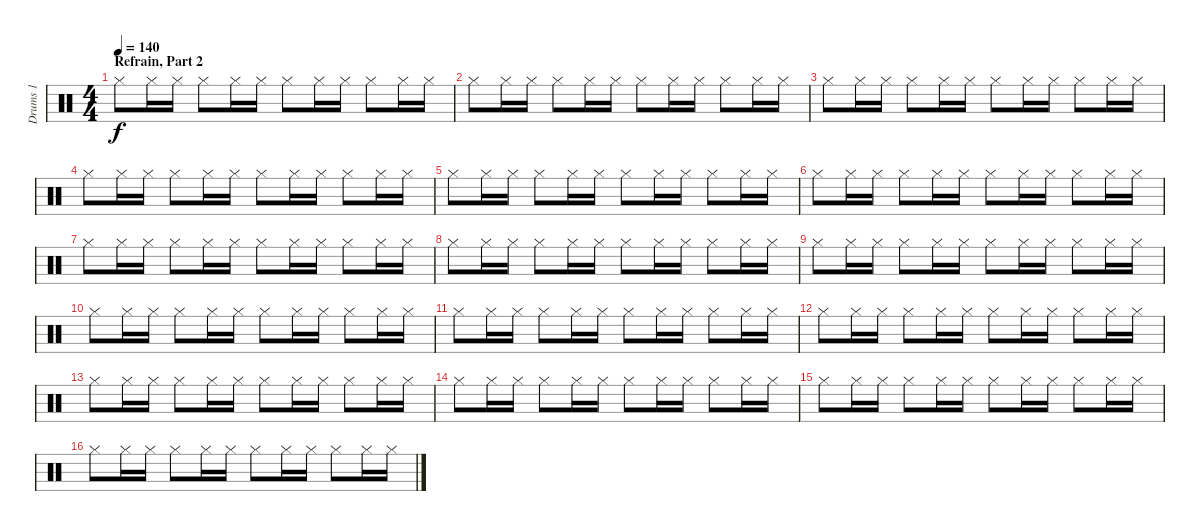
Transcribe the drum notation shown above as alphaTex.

\track ("Drums 1" "Drums 1") {instrument percussion}
\staff {score}
\articulation defaults
\ts (4 4)
\section ("" "Refrain, Part 2")
\tempo 140
\clef neutral
\ks c "Hi-Hat (closed)".8{dy f} "Hi-Hat (closed)".16 "Hi-Hat (closed)".16 "Hi-Hat (closed)".8 "Hi-Hat (closed)".16 "Hi-Hat (closed)".16 "Hi-Hat (closed)".8 "Hi-Hat (closed)".16 "Hi-Hat (closed)".16 "Hi-Hat (closed)".8 "Hi-Hat (closed)".16 "Hi-Hat (closed)".16
|
"Hi-Hat (closed)".8 "Hi-Hat (closed)".16 "Hi-Hat (closed)".16 "Hi-Hat (closed)".8 "Hi-Hat (closed)".16 "Hi-Hat (closed)".16 "Hi-Hat (closed)".8 "Hi-Hat (closed)".16 "Hi-Hat (closed)".16 "Hi-Hat (closed)".8 "Hi-Hat (closed)".16 "Hi-Hat (closed)".16 |
"Hi-Hat (closed)".8 "Hi-Hat (closed)".16 "Hi-Hat (closed)".16 "Hi-Hat (closed)".8 "Hi-Hat (closed)".16 "Hi-Hat (closed)".16 "Hi-Hat (closed)".8 "Hi-Hat (closed)".16 "Hi-Hat (closed)".16 "Hi-Hat (closed)".8 "Hi-Hat (closed)".16 "Hi-Hat (closed)".16 |
"Hi-Hat (closed)".8 "Hi-Hat (closed)".16 "Hi-Hat (closed)".16 "Hi-Hat (closed)".8 "Hi-Hat (closed)".16 "Hi-Hat (closed)".16 "Hi-Hat (closed)".8 "Hi-Hat (closed)".16 "Hi-Hat (closed)".16 "Hi-Hat (closed)".8 "Hi-Hat (closed)".16 "Hi-Hat (closed)".16 |
"Hi-Hat (closed)".8 "Hi-Hat (closed)".16 "Hi-Hat (closed)".16 "Hi-Hat (closed)".8 "Hi-Hat (closed)".16 "Hi-Hat (closed)".16 "Hi-Hat (closed)".8 "Hi-Hat (closed)".16 "Hi-Hat (closed)".16 "Hi-Hat (closed)".8 "Hi-Hat (closed)".16 "Hi-Hat (closed)".16 |
"Hi-Hat (closed)".8 "Hi-Hat (closed)".16 "Hi-Hat (closed)".16 "Hi-Hat (closed)".8 "Hi-Hat (closed)".16 "Hi-Hat (closed)".16 "Hi-Hat (closed)".8 "Hi-Hat (closed)".16 "Hi-Hat (closed)".16 "Hi-Hat (closed)".8 "Hi-Hat (closed)".16 "Hi-Hat (closed)".16 |
"Hi-Hat (closed)".8 "Hi-Hat (closed)".16 "Hi-Hat (closed)".16 "Hi-Hat (closed)".8 "Hi-Hat (closed)".16 "Hi-Hat (closed)".16 "Hi-Hat (closed)".8 "Hi-Hat (closed)".16 "Hi-Hat (closed)".16 "Hi-Hat (closed)".8 "Hi-Hat (closed)".16 "Hi-Hat (closed)".16 |
"Hi-Hat (closed)".8 "Hi-Hat (closed)".16 "Hi-Hat (closed)".16 "Hi-Hat (closed)".8 "Hi-Hat (closed)".16 "Hi-Hat (closed)".16 "Hi-Hat (closed)".8 "Hi-Hat (closed)".16 "Hi-Hat (closed)".16 "Hi-Hat (closed)".8 "Hi-Hat (closed)".16 "Hi-Hat (closed)".16 |
"Hi-Hat (closed)".8 "Hi-Hat (closed)".16 "Hi-Hat (closed)".16 "Hi-Hat (closed)".8 "Hi-Hat (closed)".16 "Hi-Hat (closed)".16 "Hi-Hat (closed)".8 "Hi-Hat (closed)".16 "Hi-Hat (closed)".16 "Hi-Hat (closed)".8 "Hi-Hat (closed)".16 "Hi-Hat (closed)".16 |
"Hi-Hat (closed)".8 "Hi-Hat (closed)".16 "Hi-Hat (closed)".16 "Hi-Hat (closed)".8 "Hi-Hat (closed)".16 "Hi-Hat (closed)".16 "Hi-Hat (closed)".8 "Hi-Hat (closed)".16 "Hi-Hat (closed)".16 "Hi-Hat (closed)".8 "Hi-Hat (closed)".16 "Hi-Hat (closed)".16 |
"Hi-Hat (closed)".8 "Hi-Hat (closed)".16 "Hi-Hat (closed)".16 "Hi-Hat (closed)".8 "Hi-Hat (closed)".16 "Hi-Hat (closed)".16 "Hi-Hat (closed)".8 "Hi-Hat (closed)".16 "Hi-Hat (closed)".16 "Hi-Hat (closed)".8 "Hi-Hat (closed)".16 "Hi-Hat (closed)".16 |
"Hi-Hat (closed)".8 "Hi-Hat (closed)".16 "Hi-Hat (closed)".16 "Hi-Hat (closed)".8 "Hi-Hat (closed)".16 "Hi-Hat (closed)".16 "Hi-Hat (closed)".8 "Hi-Hat (closed)".16 "Hi-Hat (closed)".16 "Hi-Hat (closed)".8 "Hi-Hat (closed)".16 "Hi-Hat (closed)".16 |
"Hi-Hat (closed)".8 "Hi-Hat (closed)".16 "Hi-Hat (closed)".16 "Hi-Hat (closed)".8 "Hi-Hat (closed)".16 "Hi-Hat (closed)".16 "Hi-Hat (closed)".8 "Hi-Hat (closed)".16 "Hi-Hat (closed)".16 "Hi-Hat (closed)".8 "Hi-Hat (closed)".16 "Hi-Hat (closed)".16 |
"Hi-Hat (closed)".8 "Hi-Hat (closed)".16 "Hi-Hat (closed)".16 "Hi-Hat (closed)".8 "Hi-Hat (closed)".16 "Hi-Hat (closed)".16 "Hi-Hat (closed)".8 "Hi-Hat (closed)".16 "Hi-Hat (closed)".16 "Hi-Hat (closed)".8 "Hi-Hat (closed)".16 "Hi-Hat (closed)".16 |
"Hi-Hat (closed)".8 "Hi-Hat (closed)".16 "Hi-Hat (closed)".16 "Hi-Hat (closed)".8 "Hi-Hat (closed)".16 "Hi-Hat (closed)".16 "Hi-Hat (closed)".8 "Hi-Hat (closed)".16 "Hi-Hat (closed)".16 "Hi-Hat (closed)".8 "Hi-Hat (closed)".16 "Hi-Hat (closed)".16 |
"Hi-Hat (closed)".8 "Hi-Hat (closed)".16 "Hi-Hat (closed)".16 "Hi-Hat (closed)".8 "Hi-Hat (closed)".16 "Hi-Hat (closed)".16 "Hi-Hat (closed)".8 "Hi-Hat (closed)".16 "Hi-Hat (closed)".16 "Hi-Hat (closed)".8 "Hi-Hat (closed)".16 "Hi-Hat (closed)".16
